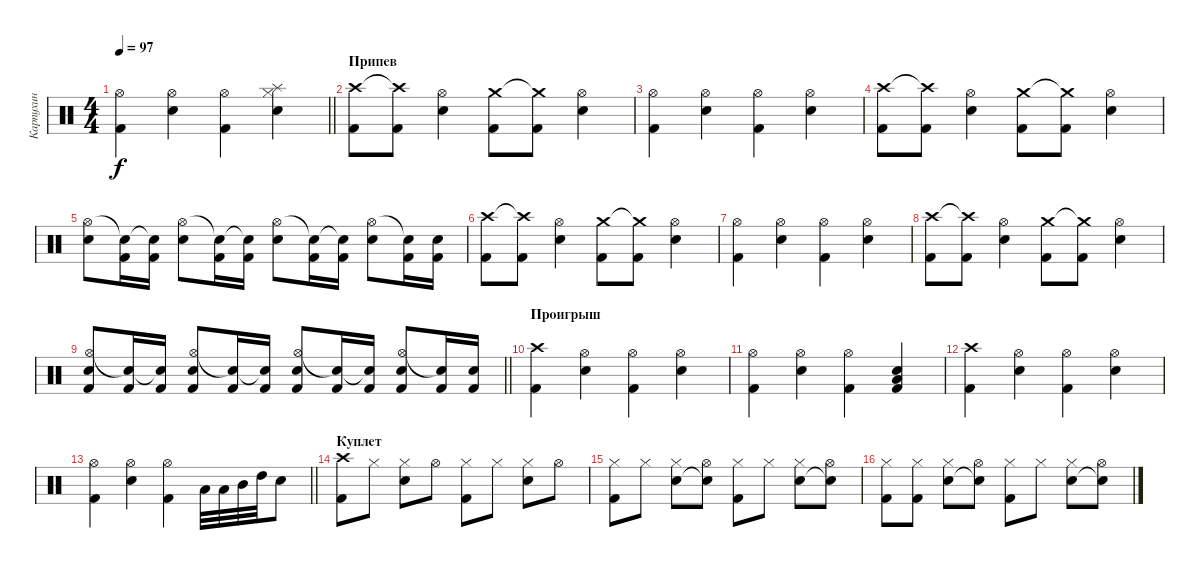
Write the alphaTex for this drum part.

\track ("Карпухин" "Карпухин") {instrument percussion}
\staff {score}
\articulation defaults
\ts (4 4)
\tempo 97
\clef neutral
\barLineRight lightlight
\ks c
("Kick (hit) 2" "Hi-Hat (open)").4{dy f} ("Electric Snare (hit)" "Hi-Hat (open)").4 ("Kick (hit) 2" "Hi-Hat (open)").4 ("Electric Snare (hit)" "Hi-Hat (closed)" "Splash (hit)").4 |
\section ("" "Припев")
("Crash high (hit)" "Kick (hit) 2").8 ("Crash high (hit)"{t} "Kick (hit) 2").8 ("Hi-Hat (open)" "Electric Snare (hit)").4 ("Crash medium (hit)" "Kick (hit) 2").8 ("Crash medium (hit)"{t} "Kick (hit) 2").8 ("Hi-Hat (open)" "Electric Snare (hit)").4 |
("Kick (hit) 2" "Hi-Hat (open)").4 ("Electric Snare (hit)" "Hi-Hat (open)").4 ("Kick (hit) 2" "Hi-Hat (open)").4 ("Electric Snare (hit)" "Hi-Hat (open)").4 |
("Crash high (hit)" "Kick (hit) 2").8 ("Crash high (hit)"{t} "Kick (hit) 2").8 ("Hi-Hat (open)" "Electric Snare (hit)").4 ("Crash medium (hit)" "Kick (hit) 2").8 ("Crash medium (hit)"{t} "Kick (hit) 2").8 ("Hi-Hat (open)" "Electric Snare (hit)").4 |
("Electric Snare (hit)" "Hi-Hat (open)").8 ("Kick (hit) 2" "Snare (hit)"{t}).16 ("Kick (hit) 2" "Snare (hit)"{t}).16 ("Electric Snare (hit)" "Hi-Hat (open)").8 ("Kick (hit) 2" "Snare (hit)"{t}).16 ("Kick (hit) 2" "Snare (hit)"{t}).16 ("Electric Snare (hit)" "Hi-Hat (open)").8 ("Kick (hit) 2" "Snare (hit)"{t}).16 ("Kick (hit) 2" "Snare (hit)"{t}).16 ("Electric Snare (hit)" "Hi-Hat (open)").8 ("Kick (hit) 2" "Snare (hit) 2"{t}).16 ("Kick (hit) 2" "Snare (hit) 2").16 |
("Crash high (hit)" "Kick (hit) 2").8 ("Crash high (hit)"{t} "Kick (hit) 2").8 ("Hi-Hat (open)" "Electric Snare (hit)").4 ("Crash medium (hit)" "Kick (hit) 2").8 ("Crash medium (hit)"{t} "Kick (hit) 2").8 ("Hi-Hat (open)" "Electric Snare (hit)").4 |
("Kick (hit) 2" "Hi-Hat (open)").4 ("Electric Snare (hit)" "Hi-Hat (open)").4 ("Kick (hit) 2" "Hi-Hat (open)").4 ("Electric Snare (hit)" "Hi-Hat (open)").4 |
("Crash high (hit)" "Kick (hit) 2").8 ("Crash high (hit)"{t} "Kick (hit) 2").8 ("Hi-Hat (open)" "Electric Snare (hit)").4 ("Crash medium (hit)" "Kick (hit) 2").8 ("Crash medium (hit)"{t} "Kick (hit) 2").8 ("Hi-Hat (open)" "Electric Snare (hit)").4 |
\barLineRight lightlight
("Snare (hit) 2" "Hi-Hat (open)" "Kick (hit) 2").8 ("Kick (hit) 2" "Snare (hit)"{t}).16 ("Kick (hit) 2" "Snare (hit)"{t}).16 ("Snare (hit) 2" "Hi-Hat (open)" "Kick (hit) 2").8 ("Kick (hit) 2" "Snare (hit)"{t}).16 ("Kick (hit) 2" "Snare (hit)"{t}).16 ("Snare (hit) 2" "Hi-Hat (open)" "Kick (hit) 2").8 ("Kick (hit) 2" "Snare (hit)"{t}).16 ("Kick (hit) 2" "Snare (hit)"{t}).16 ("Snare (hit) 2" "Hi-Hat (open)" "Kick (hit) 2").8 ("Kick (hit) 2" "Snare (hit) 2"{t}).16 ("Kick (hit) 2" "Snare (hit) 2").16 |
\section ("" "Проигрыш")
("Crash high (hit)" "Kick (hit) 2").4 ("Electric Snare (hit)" "Hi-Hat (open)").4 ("Kick (hit) 2" "Hi-Hat (open)").4 ("Electric Snare (hit)" "Hi-Hat (open)").4 |
("Kick (hit) 2" "Hi-Hat (open)").4 ("Electric Snare (hit)" "Hi-Hat (open)").4 ("Kick (hit) 2" "Hi-Hat (open)").4 ("Electric Snare (hit)" "Low Floor Tom (hit)" "Kick (hit) 2").4 |
("Crash high (hit)" "Kick (hit) 2").4 ("Electric Snare (hit)" "Hi-Hat (open)").4 ("Kick (hit) 2" "Hi-Hat (open)").4 ("Electric Snare (hit)" "Hi-Hat (open)").4 |
\barLineRight lightlight
("Kick (hit) 2" "Hi-Hat (open)").4 ("Electric Snare (hit)" "Hi-Hat (open)").4 ("Kick (hit) 2" "Hi-Hat (open)").4 "Low Tom (hit)".32 "Low Tom (hit)".32 "Mid Tom (hit)".32 "High Tom (hit)".32 "Snare (hit) 2".8 |
\section ("" "Куплет")
("Crash high (hit)" "Kick (hit) 2").8 "Hi-Hat (closed)".8 ("Hi-Hat (closed)" "Snare (hit) 2").8 "Hi-Hat (open)".8 ("Hi-Hat (closed)" "Kick (hit) 2").8 "Hi-Hat (closed)".8 ("Hi-Hat (closed)" "Snare (hit) 2").8 "Hi-Hat (open)".8 |
("Hi-Hat (closed)" "Kick (hit) 2").8 "Hi-Hat (closed)".8 ("Hi-Hat (closed)" "Snare (hit) 2").8 ("Hi-Hat (open)" "Snare (hit) 2"{t}).8 ("Hi-Hat (closed)" "Kick (hit) 2").8 "Hi-Hat (closed)".8 ("Hi-Hat (closed)" "Snare (hit) 2").8 ("Hi-Hat (open)" "Snare (hit) 2"{t}).8 |
("Hi-Hat (closed)" "Kick (hit) 2").8 ("Kick (hit) 2" "Hi-Hat (closed)").8 ("Hi-Hat (closed)" "Snare (hit) 2").8 ("Hi-Hat (open)" "Snare (hit) 2"{t}).8 ("Hi-Hat (closed)" "Kick (hit) 2").8 "Hi-Hat (closed)".8 ("Hi-Hat (closed)" "Snare (hit) 2").8 ("Hi-Hat (open)" "Snare (hit) 2"{t}).8
